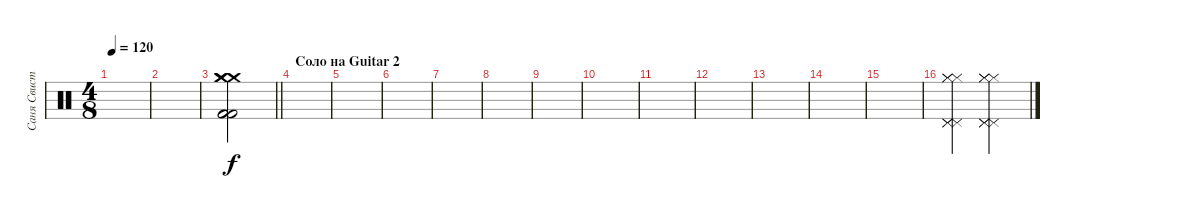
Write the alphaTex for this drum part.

\track ("Саня Свистун - Drums" "Саня Свист") {instrument percussion}
\staff {score}
\articulation defaults
\ts (4 8)
\tempo 120
\clef neutral
\ks c
|
|
\barLineRight lightlight
("Kick (hit) 2" "Kick (hit) 2" "Kick (hit) 2" "Crash medium (hit)" "Crash medium (hit)" "Crash medium (hit)").2 |
\section ("" "Соло на Guitar 2")
|
|
|
|
|
|
|
|
|
|
|
|
("Pedal Hi-Hat (hit)" "Pedal Hi-Hat (hit)" "Pedal Hi-Hat (hit)" "Hi-Hat (closed)" "Hi-Hat (closed)" "Hi-Hat (closed)").4 ("Pedal Hi-Hat (hit)" "Pedal Hi-Hat (hit)" "Pedal Hi-Hat (hit)" "Hi-Hat (closed)" "Hi-Hat (closed)" "Hi-Hat (closed)").4
